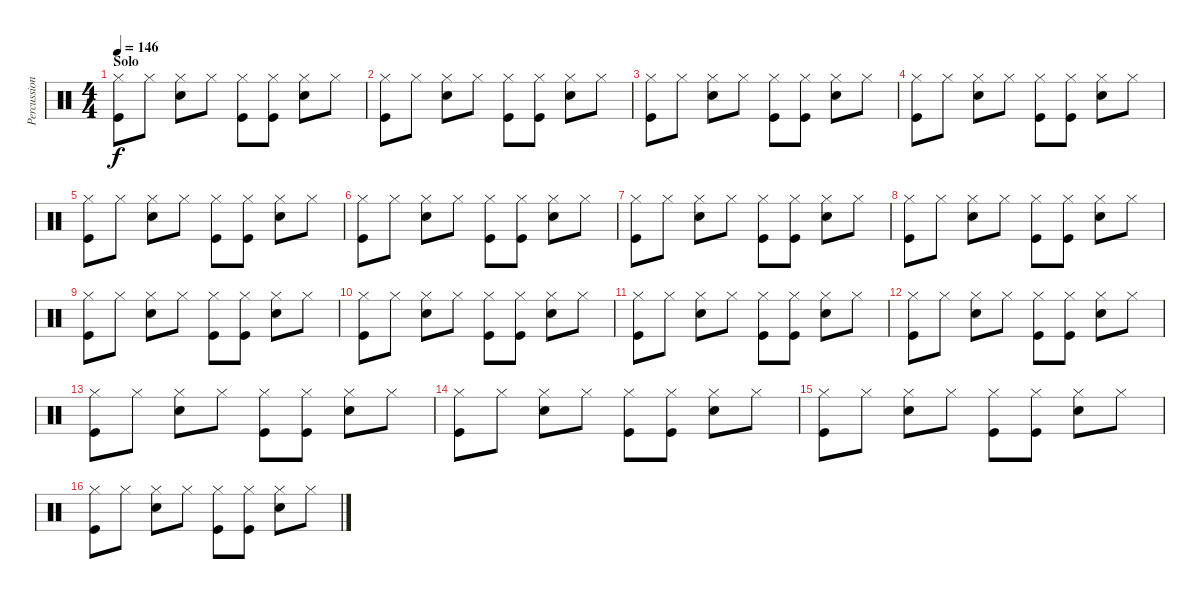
\track ("Percussions" "Percussion") {instrument percussion}
\staff {score}
\articulation defaults
\ts (4 4)
\section ("" "Solo")
\tempo 146
\clef neutral
\ks c
("Hi-Hat (closed)" "Kick (hit)").8{dy f} "Hi-Hat (closed)".8 ("Hi-Hat (closed)" "Snare (hit) 2").8 "Hi-Hat (closed)".8 ("Hi-Hat (closed)" "Kick (hit)").8 ("Hi-Hat (closed)" "Kick (hit)").8 ("Hi-Hat (closed)" "Snare (hit) 2").8 "Hi-Hat (closed)".8 |
("Hi-Hat (closed)" "Kick (hit)").8 "Hi-Hat (closed)".8 ("Hi-Hat (closed)" "Snare (hit) 2").8 "Hi-Hat (closed)".8 ("Hi-Hat (closed)" "Kick (hit)").8 ("Hi-Hat (closed)" "Kick (hit)").8 ("Hi-Hat (closed)" "Snare (hit) 2").8 "Hi-Hat (closed)".8 |
("Hi-Hat (closed)" "Kick (hit)").8 "Hi-Hat (closed)".8 ("Hi-Hat (closed)" "Snare (hit) 2").8 "Hi-Hat (closed)".8 ("Hi-Hat (closed)" "Kick (hit)").8 ("Hi-Hat (closed)" "Kick (hit)").8 ("Hi-Hat (closed)" "Snare (hit) 2").8 "Hi-Hat (closed)".8 |
("Hi-Hat (closed)" "Kick (hit)").8 "Hi-Hat (closed)".8 ("Hi-Hat (closed)" "Snare (hit) 2").8 "Hi-Hat (closed)".8 ("Hi-Hat (closed)" "Kick (hit)").8 ("Hi-Hat (closed)" "Kick (hit)").8 ("Hi-Hat (closed)" "Snare (hit) 2").8 "Hi-Hat (closed)".8 |
("Hi-Hat (closed)" "Kick (hit)").8 "Hi-Hat (closed)".8 ("Hi-Hat (closed)" "Snare (hit) 2").8 "Hi-Hat (closed)".8 ("Hi-Hat (closed)" "Kick (hit)").8 ("Hi-Hat (closed)" "Kick (hit)").8 ("Hi-Hat (closed)" "Snare (hit) 2").8 "Hi-Hat (closed)".8 |
("Hi-Hat (closed)" "Kick (hit)").8 "Hi-Hat (closed)".8 ("Hi-Hat (closed)" "Snare (hit) 2").8 "Hi-Hat (closed)".8 ("Hi-Hat (closed)" "Kick (hit)").8 ("Hi-Hat (closed)" "Kick (hit)").8 ("Hi-Hat (closed)" "Snare (hit) 2").8 "Hi-Hat (closed)".8 |
("Hi-Hat (closed)" "Kick (hit)").8 "Hi-Hat (closed)".8 ("Hi-Hat (closed)" "Snare (hit) 2").8 "Hi-Hat (closed)".8 ("Hi-Hat (closed)" "Kick (hit)").8 ("Hi-Hat (closed)" "Kick (hit)").8 ("Hi-Hat (closed)" "Snare (hit) 2").8 "Hi-Hat (closed)".8 |
("Hi-Hat (closed)" "Kick (hit)").8 "Hi-Hat (closed)".8 ("Hi-Hat (closed)" "Snare (hit) 2").8 "Hi-Hat (closed)".8 ("Hi-Hat (closed)" "Kick (hit)").8 ("Hi-Hat (closed)" "Kick (hit)").8 ("Hi-Hat (closed)" "Snare (hit) 2").8 "Hi-Hat (closed)".8 |
("Hi-Hat (closed)" "Kick (hit)").8 "Hi-Hat (closed)".8 ("Hi-Hat (closed)" "Snare (hit) 2").8 "Hi-Hat (closed)".8 ("Hi-Hat (closed)" "Kick (hit)").8 ("Hi-Hat (closed)" "Kick (hit)").8 ("Hi-Hat (closed)" "Snare (hit) 2").8 "Hi-Hat (closed)".8 |
("Hi-Hat (closed)" "Kick (hit)").8 "Hi-Hat (closed)".8 ("Hi-Hat (closed)" "Snare (hit) 2").8 "Hi-Hat (closed)".8 ("Hi-Hat (closed)" "Kick (hit)").8 ("Hi-Hat (closed)" "Kick (hit)").8 ("Hi-Hat (closed)" "Snare (hit) 2").8 "Hi-Hat (closed)".8 |
("Hi-Hat (closed)" "Kick (hit)").8 "Hi-Hat (closed)".8 ("Hi-Hat (closed)" "Snare (hit) 2").8 "Hi-Hat (closed)".8 ("Hi-Hat (closed)" "Kick (hit)").8 ("Hi-Hat (closed)" "Kick (hit)").8 ("Hi-Hat (closed)" "Snare (hit) 2").8 "Hi-Hat (closed)".8 |
("Hi-Hat (closed)" "Kick (hit)").8 "Hi-Hat (closed)".8 ("Hi-Hat (closed)" "Snare (hit) 2").8 "Hi-Hat (closed)".8 ("Hi-Hat (closed)" "Kick (hit)").8 ("Hi-Hat (closed)" "Kick (hit)").8 ("Hi-Hat (closed)" "Snare (hit) 2").8 "Hi-Hat (closed)".8 |
("Hi-Hat (closed)" "Kick (hit)").8 "Hi-Hat (closed)".8 ("Hi-Hat (closed)" "Snare (hit) 2").8 "Hi-Hat (closed)".8 ("Hi-Hat (closed)" "Kick (hit)").8 ("Hi-Hat (closed)" "Kick (hit)").8 ("Hi-Hat (closed)" "Snare (hit) 2").8 "Hi-Hat (closed)".8 |
("Hi-Hat (closed)" "Kick (hit)").8 "Hi-Hat (closed)".8 ("Hi-Hat (closed)" "Snare (hit) 2").8 "Hi-Hat (closed)".8 ("Hi-Hat (closed)" "Kick (hit)").8 ("Hi-Hat (closed)" "Kick (hit)").8 ("Hi-Hat (closed)" "Snare (hit) 2").8 "Hi-Hat (closed)".8 |
("Hi-Hat (closed)" "Kick (hit)").8 "Hi-Hat (closed)".8 ("Hi-Hat (closed)" "Snare (hit) 2").8 "Hi-Hat (closed)".8 ("Hi-Hat (closed)" "Kick (hit)").8 ("Hi-Hat (closed)" "Kick (hit)").8 ("Hi-Hat (closed)" "Snare (hit) 2").8 "Hi-Hat (closed)".8 |
("Hi-Hat (closed)" "Kick (hit)").8 "Hi-Hat (closed)".8 ("Hi-Hat (closed)" "Snare (hit) 2").8 "Hi-Hat (closed)".8 ("Hi-Hat (closed)" "Kick (hit)").8 ("Hi-Hat (closed)" "Kick (hit)").8 ("Hi-Hat (closed)" "Snare (hit) 2").8 "Hi-Hat (closed)".8
